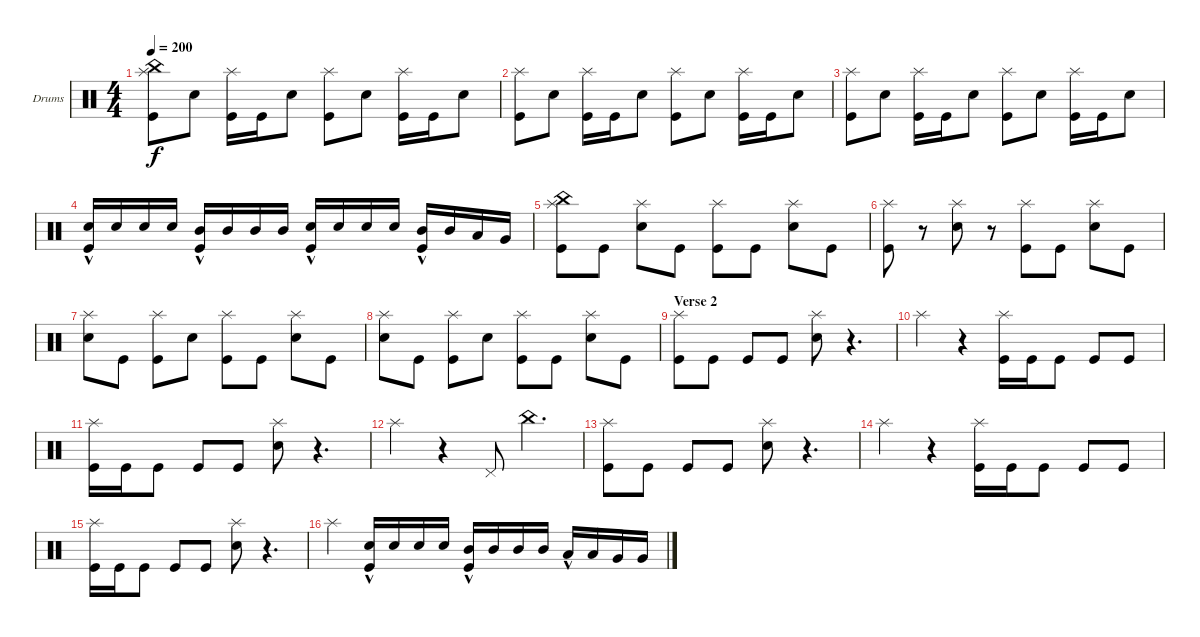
\defaultSystemsLayout 4
\bracketExtendMode groupsimilarinstruments
\firstSystemTrackNameOrientation horizontal
\otherSystemsTrackNameOrientation horizontal
\track ("Drumkit" "Drums") {instrument percussion}
\staff {score}
\articulation defaults
\ts (4 4)
\tempo 200
\clef neutral
\ks c
("Splash (hit)" "Kick (hit)" "China (hit)").8{dy f} "Snare (hit) 2".8 ("Splash (hit)" "Kick (hit)").16 "Kick (hit)".16 "Snare (hit) 2".8 ("Splash (hit)" "Kick (hit)").8 "Snare (hit) 2".8 ("Splash (hit)" "Kick (hit)").16 "Kick (hit)".16 "Snare (hit) 2".8 |
("Splash (hit)" "Kick (hit)").8 "Snare (hit) 2".8 ("Splash (hit)" "Kick (hit)").16 "Kick (hit)".16 "Snare (hit) 2".8 ("Splash (hit)" "Kick (hit)").8 "Snare (hit) 2".8 ("Splash (hit)" "Kick (hit)").16 "Kick (hit)".16 "Snare (hit) 2".8 |
("Splash (hit)" "Kick (hit)").8 "Snare (hit) 2".8 ("Splash (hit)" "Kick (hit)").16 "Kick (hit)".16 "Snare (hit) 2".8 ("Splash (hit)" "Kick (hit)").8 "Snare (hit) 2".8 ("Splash (hit)" "Kick (hit)").16 "Kick (hit)".16 "Snare (hit) 2".8 |
("Kick (hit)" "Snare (hit) 2"{hac}).16 "Snare (hit) 2".16 "Snare (hit) 2".16 "Snare (hit) 2".16 ("Kick (hit)" "Mid Tom (hit)"{hac}).16 "Mid Tom (hit)".16 "Mid Tom (hit)".16 "Mid Tom (hit)".16 ("Kick (hit)" "Snare (hit) 2"{hac}).16 "Snare (hit) 2".16 "Snare (hit) 2".16 "Snare (hit) 2".16 ("Kick (hit)" "Mid Tom (hit)"{hac}).16 "Mid Tom (hit)".16 "Low Tom (hit)".16 "Very Low Tom (hit)".16 |
("Kick (hit)" "Splash (hit)" "China (hit)").8 "Kick (hit)".8 ("Splash (hit)" "Snare (hit) 2").8 "Kick (hit)".8 ("Kick (hit)" "Splash (hit)").8 "Kick (hit)".8 ("Splash (hit)" "Snare (hit) 2").8 "Kick (hit)".8 |
("Kick (hit)" "Splash (hit)").8 r.8 ("Splash (hit)" "Snare (hit) 2").8 r.8 ("Kick (hit)" "Splash (hit)").8 "Kick (hit)".8 ("Splash (hit)" "Snare (hit) 2").8 "Kick (hit)".8 |
("Splash (hit)" "Snare (hit) 2").8 "Kick (hit)".8 ("Splash (hit)" "Kick (hit)").8 "Snare (hit) 2".8 ("Kick (hit)" "Splash (hit)").8 "Kick (hit)".8 ("Splash (hit)" "Snare (hit) 2").8 "Kick (hit)".8 |
("Splash (hit)" "Snare (hit) 2").8 "Kick (hit)".8 ("Splash (hit)" "Kick (hit)").8 "Snare (hit) 2".8 ("Kick (hit)" "Splash (hit)").8 "Kick (hit)".8 ("Splash (hit)" "Snare (hit) 2").8 "Kick (hit)".8 |
\section ("" "Verse 2")
("Kick (hit)" "Splash (hit)").8 "Kick (hit)".8 "Kick (hit)".8 "Kick (hit)".8 ("Splash (hit)" "Snare (hit) 2").8 r.4{d} |
"Splash (hit)".4 r.4 ("Kick (hit)" "Splash (hit)").16 "Kick (hit)".16 "Kick (hit)".8 "Kick (hit)".8 "Kick (hit)".8 |
("Kick (hit)" "Splash (hit)").16 "Kick (hit)".16 "Kick (hit)".8 "Kick (hit)".8 "Kick (hit)".8 ("Snare (hit) 2" "Splash (hit)").8 r.4{d} |
"Splash (hit)".4 r.4 "Pedal Hi-Hat (hit)".8 "China (hit)".4{d} |
("Kick (hit)" "Splash (hit)").8 "Kick (hit)".8 "Kick (hit)".8 "Kick (hit)".8 ("Splash (hit)" "Snare (hit) 2").8 r.4{d} |
"Splash (hit)".4 r.4 ("Kick (hit)" "Splash (hit)").16 "Kick (hit)".16 "Kick (hit)".8 "Kick (hit)".8 "Kick (hit)".8 |
("Kick (hit)" "Splash (hit)").16 "Kick (hit)".16 "Kick (hit)".8 "Kick (hit)".8 "Kick (hit)".8 ("Snare (hit) 2" "Splash (hit)").8 r.4{d} |
"Splash (hit)".4 ("Kick (hit)" "Snare (hit) 2"{hac}).16 "Snare (hit) 2".16 "Snare (hit) 2".16 "Snare (hit) 2".16 ("Kick (hit)" "Mid Tom (hit)"{hac}).16 "Mid Tom (hit)".16 "Mid Tom (hit)".16 "Mid Tom (hit)".16 "Low Tom (hit)"{hac}.16 "Low Tom (hit)".16 "Very Low Tom (hit)".16 "Very Low Tom (hit)".16
